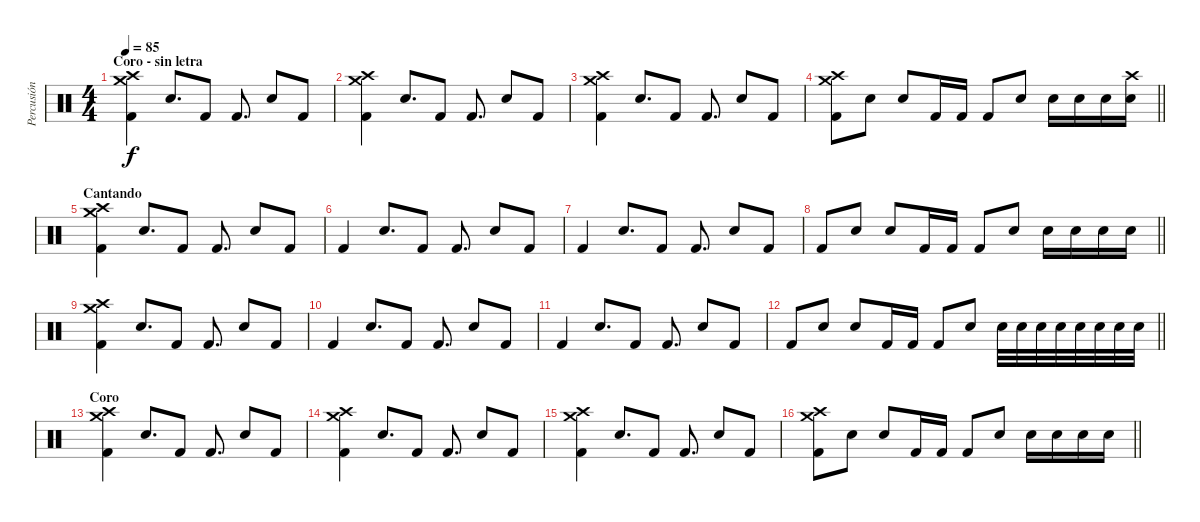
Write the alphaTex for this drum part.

\track ("Percusión" "Percusión") {instrument percussion}
\staff {score}
\articulation defaults
\ts (4 4)
\section ("" "Coro - sin letra")
\tempo 85
\clef neutral
\ks c
("Crash medium (hit)" "Crash high (hit)" "Kick (hit) 2").4{dy f} "Electric Snare (hit)".8{d} "Kick (hit) 2".8 "Kick (hit) 2".8{d} "Electric Snare (hit)".8 "Kick (hit) 2".8 |
("Crash medium (hit)" "Crash high (hit)" "Kick (hit) 2").4 "Electric Snare (hit)".8{d} "Kick (hit) 2".8 "Kick (hit) 2".8{d} "Electric Snare (hit)".8 "Kick (hit) 2".8 |
("Crash medium (hit)" "Crash high (hit)" "Kick (hit) 2").4 "Electric Snare (hit)".8{d} "Kick (hit) 2".8 "Kick (hit) 2".8{d} "Electric Snare (hit)".8 "Kick (hit) 2".8 |
\barLineRight lightlight
("Crash medium (hit)" "Crash high (hit)" "Kick (hit) 2").8 "Electric Snare (hit)".8 "Electric Snare (hit)".8 "Kick (hit) 2".16 "Kick (hit) 2".16 "Kick (hit) 2".8 "Electric Snare (hit)".8 "Electric Snare (hit)".16 "Electric Snare (hit)".16 "Electric Snare (hit)".16 ("Crash high (hit)" "Electric Snare (hit)").16 |
\section ("" "Cantando")
("Crash high (hit)" "Crash medium (hit)" "Kick (hit) 2").4 "Electric Snare (hit)".8{d} "Kick (hit) 2".8 "Kick (hit) 2".8{d} "Electric Snare (hit)".8 "Kick (hit) 2".8 |
"Kick (hit) 2".4 "Electric Snare (hit)".8{d} "Kick (hit) 2".8 "Kick (hit) 2".8{d} "Electric Snare (hit)".8 "Kick (hit) 2".8 |
"Kick (hit) 2".4 "Electric Snare (hit)".8{d} "Kick (hit) 2".8 "Kick (hit) 2".8{d} "Electric Snare (hit)".8 "Kick (hit) 2".8 |
\barLineRight lightlight "Kick (hit) 2".8 "Electric Snare (hit)".8 "Electric Snare (hit)".8 "Kick (hit) 2".16 "Kick (hit) 2".16 "Kick (hit) 2".8 "Electric Snare (hit)".8 "Electric Snare (hit)".16 "Electric Snare (hit)".16 "Electric Snare (hit)".16 "Electric Snare (hit)".16
|
("Crash high (hit)" "Crash medium (hit)" "Kick (hit) 2").4 "Electric Snare (hit)".8{d} "Kick (hit) 2".8 "Kick (hit) 2".8{d} "Electric Snare (hit)".8 "Kick (hit) 2".8 |
"Kick (hit) 2".4 "Electric Snare (hit)".8{d} "Kick (hit) 2".8 "Kick (hit) 2".8{d} "Electric Snare (hit)".8 "Kick (hit) 2".8 |
"Kick (hit) 2".4 "Electric Snare (hit)".8{d} "Kick (hit) 2".8 "Kick (hit) 2".8{d} "Electric Snare (hit)".8 "Kick (hit) 2".8 |
\barLineRight lightlight "Kick (hit) 2".8 "Electric Snare (hit)".8 "Electric Snare (hit)".8 "Kick (hit) 2".16 "Kick (hit) 2".16 "Kick (hit) 2".8 "Electric Snare (hit)".8 "Electric Snare (hit)".32 "Electric Snare (hit)".32 "Electric Snare (hit)".32 "Electric Snare (hit)".32 "Electric Snare (hit)".32 "Electric Snare (hit)".32 "Electric Snare (hit)".32 "Electric Snare (hit)".32
|
\section ("" "Coro")
("Crash medium (hit)" "Crash high (hit)" "Kick (hit) 2").4 "Electric Snare (hit)".8{d} "Kick (hit) 2".8 "Kick (hit) 2".8{d} "Electric Snare (hit)".8 "Kick (hit) 2".8 |
("Crash medium (hit)" "Crash high (hit)" "Kick (hit) 2").4 "Electric Snare (hit)".8{d} "Kick (hit) 2".8 "Kick (hit) 2".8{d} "Electric Snare (hit)".8 "Kick (hit) 2".8 |
("Crash medium (hit)" "Crash high (hit)" "Kick (hit) 2").4 "Electric Snare (hit)".8{d} "Kick (hit) 2".8 "Kick (hit) 2".8{d} "Electric Snare (hit)".8 "Kick (hit) 2".8 |
\barLineRight lightlight
("Crash medium (hit)" "Crash high (hit)" "Kick (hit) 2").8 "Electric Snare (hit)".8 "Electric Snare (hit)".8 "Kick (hit) 2".16 "Kick (hit) 2".16 "Kick (hit) 2".8 "Electric Snare (hit)".8 "Electric Snare (hit)".16 "Electric Snare (hit)".16 "Electric Snare (hit)".16 "Electric Snare (hit)".16
